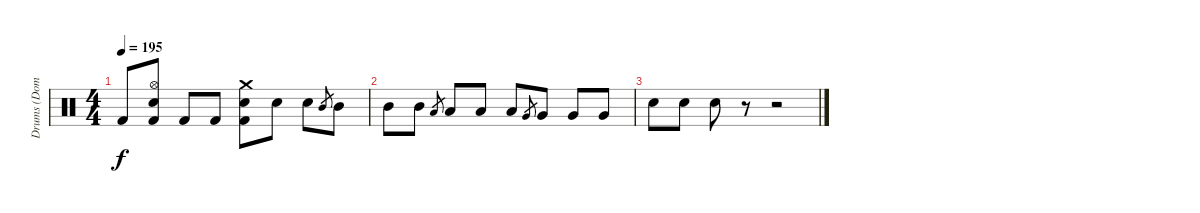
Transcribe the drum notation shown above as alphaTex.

\track ("Drums (Dominik)" "Drums (Dom") {instrument percussion}
\staff {score}
\articulation defaults
\ts (4 4)
\tempo 195
\clef neutral
\ks c "Kick (hit) 2".8{dy f}
("Hi-Hat (open)" "Electric Snare (hit)" "Kick (hit) 2").8 "Kick (hit) 2".8 "Kick (hit) 2".8 ("Crash medium (hit)" "Electric Snare (hit)" "Kick (hit) 2").8 "Electric Snare (hit)".8 "Electric Snare (hit)".8 "Mid Tom (hit)".8{gr} "Mid Tom (hit)".8 |
"Mid Tom (hit)".8 "Mid Tom (hit)".8 "Low Tom (hit)".8{gr} "Low Tom (hit)".8 "Low Tom (hit)".8 "Low Tom (hit)".8 "Very Low Tom (hit)".8{gr} "Very Low Tom (hit)".8 "Very Low Tom (hit)".8 "Very Low Tom (hit)".8 |
"Electric Snare (hit)".8 "Electric Snare (hit)".8 "Electric Snare (hit)".8 r.8 r.2
